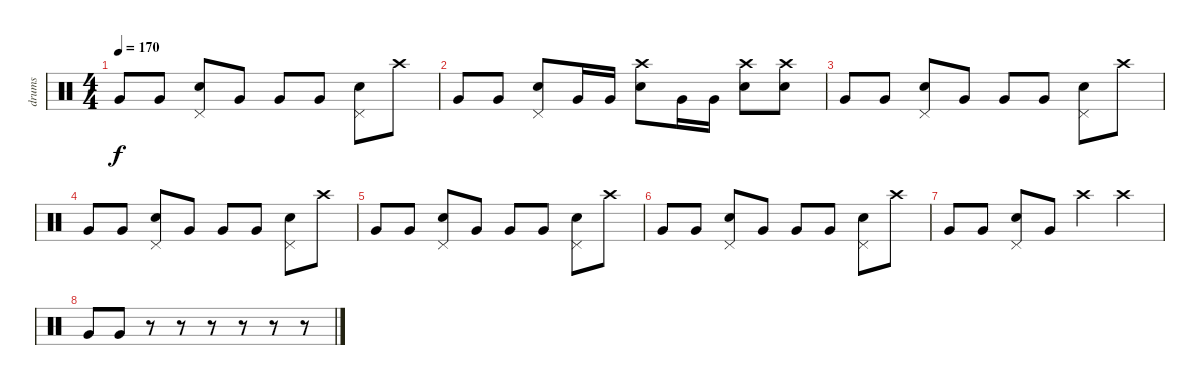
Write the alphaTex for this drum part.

\track ("drums" "drums") {instrument percussion}
\staff {score}
\articulation defaults
\ts (4 4)
\tempo 170
\clef neutral
\ks c "Very Low Tom (hit)".8{dy f} "Very Low Tom (hit)".8
("Snare (hit) 2" "Pedal Hi-Hat (hit)").8 "Very Low Tom (hit)".8 "Very Low Tom (hit)".8 "Very Low Tom (hit)".8 ("Snare (hit) 2" "Pedal Hi-Hat (hit)").8 "Crash high (hit)".8 |
"Very Low Tom (hit)".8 "Very Low Tom (hit)".8 ("Snare (hit) 2" "Pedal Hi-Hat (hit)").8 "Very Low Tom (hit)".16 "Very Low Tom (hit)".16 ("Snare (hit) 2" "Crash high (hit)").8 "Very Low Tom (hit)".16 "Very Low Tom (hit)".16 ("Snare (hit) 2" "Crash high (hit)").8 ("Snare (hit) 2" "Crash high (hit)").8 |
"Very Low Tom (hit)".8 "Very Low Tom (hit)".8 ("Snare (hit) 2" "Pedal Hi-Hat (hit)").8 "Very Low Tom (hit)".8 "Very Low Tom (hit)".8 "Very Low Tom (hit)".8 ("Snare (hit) 2" "Pedal Hi-Hat (hit)").8 "Crash high (hit)".8 |
"Very Low Tom (hit)".8 "Very Low Tom (hit)".8 ("Snare (hit) 2" "Pedal Hi-Hat (hit)").8 "Very Low Tom (hit)".8 "Very Low Tom (hit)".8 "Very Low Tom (hit)".8 ("Snare (hit) 2" "Pedal Hi-Hat (hit)").8 "Crash high (hit)".8 |
"Very Low Tom (hit)".8 "Very Low Tom (hit)".8 ("Snare (hit) 2" "Pedal Hi-Hat (hit)").8 "Very Low Tom (hit)".8 "Very Low Tom (hit)".8 "Very Low Tom (hit)".8 ("Snare (hit) 2" "Pedal Hi-Hat (hit)").8 "Crash high (hit)".8 |
"Very Low Tom (hit)".8 "Very Low Tom (hit)".8 ("Snare (hit) 2" "Pedal Hi-Hat (hit)").8 "Very Low Tom (hit)".8 "Very Low Tom (hit)".8 "Very Low Tom (hit)".8 ("Snare (hit) 2" "Pedal Hi-Hat (hit)").8 "Crash high (hit)".8 |
"Very Low Tom (hit)".8 "Very Low Tom (hit)".8 ("Snare (hit) 2" "Pedal Hi-Hat (hit)").8 "Very Low Tom (hit)".8 "Crash high (hit)".4 "Crash high (hit)".4 |
"Very Low Tom (hit)".8 "Very Low Tom (hit)".8 r.8 r.8 r.8 r.8 r.8 r.8
